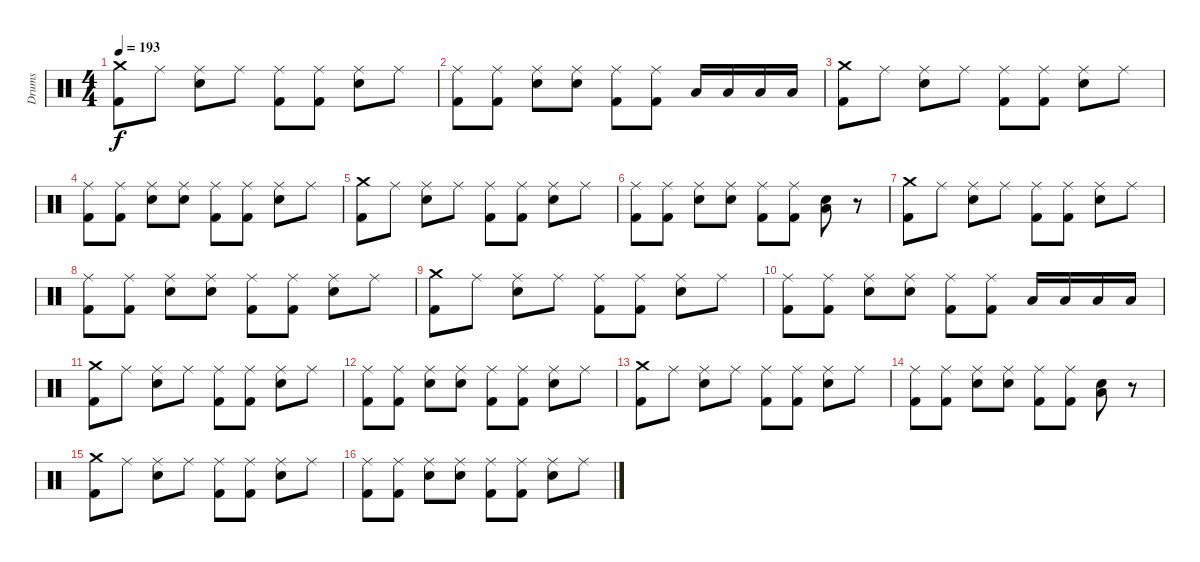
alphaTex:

\track ("Drums" "Drums") {instrument percussion}
\staff {score}
\articulation defaults
\ts (4 4)
\tempo 193
\clef neutral
\ks c
("Crash medium (hit)" "Kick (hit) 2").8{dy f} "Ride (middle)".8 ("Ride (middle)" "Snare (hit) 2").8 "Ride (middle)".8 ("Ride (middle)" "Kick (hit) 2").8 ("Ride (middle)" "Kick (hit) 2").8 ("Ride (middle)" "Snare (hit) 2").8 "Ride (middle)".8 |
("Ride (middle)" "Kick (hit) 2").8 ("Ride (middle)" "Kick (hit) 2").8 ("Ride (middle)" "Snare (hit) 2").8 ("Ride (middle)" "Snare (hit) 2").8 ("Ride (middle)" "Kick (hit) 2").8 ("Ride (middle)" "Kick (hit) 2").8 "Low Floor Tom (hit)".16 "Low Floor Tom (hit)".16 "Low Floor Tom (hit)".16 "Low Floor Tom (hit)".16 |
("Crash medium (hit)" "Kick (hit) 2").8 "Ride (middle)".8 ("Ride (middle)" "Snare (hit) 2").8 "Ride (middle)".8 ("Ride (middle)" "Kick (hit) 2").8 ("Ride (middle)" "Kick (hit) 2").8 ("Ride (middle)" "Snare (hit) 2").8 "Ride (middle)".8 |
("Ride (middle)" "Kick (hit) 2").8 ("Ride (middle)" "Kick (hit) 2").8 ("Ride (middle)" "Snare (hit) 2").8 ("Ride (middle)" "Snare (hit) 2").8 ("Ride (middle)" "Kick (hit) 2").8 ("Ride (middle)" "Kick (hit) 2").8 ("Ride (middle)" "Snare (hit) 2").8 "Ride (middle)".8 |
("Crash medium (hit)" "Kick (hit) 2").8 "Ride (middle)".8 ("Ride (middle)" "Snare (hit) 2").8 "Ride (middle)".8 ("Ride (middle)" "Kick (hit) 2").8 ("Ride (middle)" "Kick (hit) 2").8 ("Ride (middle)" "Snare (hit) 2").8 "Ride (middle)".8 |
("Ride (middle)" "Kick (hit) 2").8 ("Ride (middle)" "Kick (hit) 2").8 ("Ride (middle)" "Snare (hit) 2").8 ("Ride (middle)" "Snare (hit) 2").8 ("Ride (middle)" "Kick (hit) 2").8 ("Ride (middle)" "Kick (hit) 2").8 ("Snare (hit) 2" "Low Tom (hit)").8 r.8 |
("Crash medium (hit)" "Kick (hit) 2").8 "Ride (middle)".8 ("Ride (middle)" "Snare (hit) 2").8 "Ride (middle)".8 ("Ride (middle)" "Kick (hit) 2").8 ("Ride (middle)" "Kick (hit) 2").8 ("Ride (middle)" "Snare (hit) 2").8 "Ride (middle)".8 |
("Ride (middle)" "Kick (hit) 2").8 ("Ride (middle)" "Kick (hit) 2").8 ("Ride (middle)" "Snare (hit) 2").8 ("Ride (middle)" "Snare (hit) 2").8 ("Ride (middle)" "Kick (hit) 2").8 ("Ride (middle)" "Kick (hit) 2").8 ("Ride (middle)" "Snare (hit) 2").8 "Ride (middle)".8 |
("Crash medium (hit)" "Kick (hit) 2").8 "Ride (middle)".8 ("Ride (middle)" "Snare (hit) 2").8 "Ride (middle)".8 ("Ride (middle)" "Kick (hit) 2").8 ("Ride (middle)" "Kick (hit) 2").8 ("Ride (middle)" "Snare (hit) 2").8 "Ride (middle)".8 |
("Ride (middle)" "Kick (hit) 2").8 ("Ride (middle)" "Kick (hit) 2").8 ("Ride (middle)" "Snare (hit) 2").8 ("Ride (middle)" "Snare (hit) 2").8 ("Ride (middle)" "Kick (hit) 2").8 ("Ride (middle)" "Kick (hit) 2").8 "Low Floor Tom (hit)".16 "Low Floor Tom (hit)".16 "Low Floor Tom (hit)".16 "Low Floor Tom (hit)".16 |
("Crash medium (hit)" "Kick (hit) 2").8 "Ride (middle)".8 ("Ride (middle)" "Snare (hit) 2").8 "Ride (middle)".8 ("Ride (middle)" "Kick (hit) 2").8 ("Ride (middle)" "Kick (hit) 2").8 ("Ride (middle)" "Snare (hit) 2").8 "Ride (middle)".8 |
("Ride (middle)" "Kick (hit) 2").8 ("Ride (middle)" "Kick (hit) 2").8 ("Ride (middle)" "Snare (hit) 2").8 ("Ride (middle)" "Snare (hit) 2").8 ("Ride (middle)" "Kick (hit) 2").8 ("Ride (middle)" "Kick (hit) 2").8 ("Ride (middle)" "Snare (hit) 2").8 "Ride (middle)".8 |
("Crash medium (hit)" "Kick (hit) 2").8 "Ride (middle)".8 ("Ride (middle)" "Snare (hit) 2").8 "Ride (middle)".8 ("Ride (middle)" "Kick (hit) 2").8 ("Ride (middle)" "Kick (hit) 2").8 ("Ride (middle)" "Snare (hit) 2").8 "Ride (middle)".8 |
("Ride (middle)" "Kick (hit) 2").8 ("Ride (middle)" "Kick (hit) 2").8 ("Ride (middle)" "Snare (hit) 2").8 ("Ride (middle)" "Snare (hit) 2").8 ("Ride (middle)" "Kick (hit) 2").8 ("Ride (middle)" "Kick (hit) 2").8 ("Snare (hit) 2" "Low Tom (hit)").8 r.8 |
("Crash medium (hit)" "Kick (hit) 2").8 "Ride (middle)".8 ("Ride (middle)" "Snare (hit) 2").8 "Ride (middle)".8 ("Ride (middle)" "Kick (hit) 2").8 ("Ride (middle)" "Kick (hit) 2").8 ("Ride (middle)" "Snare (hit) 2").8 "Ride (middle)".8 |
("Ride (middle)" "Kick (hit) 2").8 ("Ride (middle)" "Kick (hit) 2").8 ("Ride (middle)" "Snare (hit) 2").8 ("Ride (middle)" "Snare (hit) 2").8 ("Ride (middle)" "Kick (hit) 2").8 ("Ride (middle)" "Kick (hit) 2").8 ("Ride (middle)" "Snare (hit) 2").8 "Ride (middle)".8
